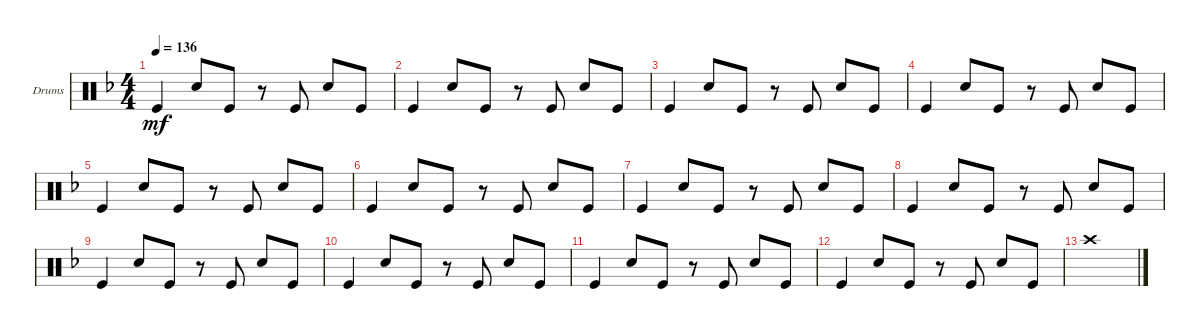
\bracketExtendMode groupsimilarinstruments
\firstSystemTrackNameOrientation horizontal
\otherSystemsTrackNameOrientation horizontal
\track ("Drumkit" "Drums") {instrument percussion}
\staff {score}
\articulation defaults
\ts (4 4)
\tempo 136
\clef neutral
\scale
0.333333
\ks f "Kick (hit)".4{dy mf} "Snare (hit) 2".8 "Kick (hit)".8
r.8 "Kick (hit)".8 "Snare (hit) 2".8 "Kick (hit)".8 |
\scale
0.333333 "Kick (hit)".4 "Snare (hit) 2".8 "Kick (hit)".8 r.8 "Kick (hit)".8 "Snare (hit) 2".8 "Kick (hit)".8 |
\scale
0.333333 "Kick (hit)".4 "Snare (hit) 2".8 "Kick (hit)".8 r.8 "Kick (hit)".8 "Snare (hit) 2".8 "Kick (hit)".8 |
\scale
0.333333 "Kick (hit)".4 "Snare (hit) 2".8 "Kick (hit)".8 r.8 "Kick (hit)".8 "Snare (hit) 2".8 "Kick (hit)".8 |
\scale
0.333333 "Kick (hit)".4 "Snare (hit) 2".8 "Kick (hit)".8 r.8 "Kick (hit)".8 "Snare (hit) 2".8 "Kick (hit)".8 |
\scale
0.333333 "Kick (hit)".4 "Snare (hit) 2".8 "Kick (hit)".8 r.8 "Kick (hit)".8 "Snare (hit) 2".8 "Kick (hit)".8 |
\scale
0.333333 "Kick (hit)".4 "Snare (hit) 2".8 "Kick (hit)".8 r.8 "Kick (hit)".8 "Snare (hit) 2".8 "Kick (hit)".8 |
\scale
0.333333 "Kick (hit)".4 "Snare (hit) 2".8 "Kick (hit)".8 r.8 "Kick (hit)".8 "Snare (hit) 2".8 "Kick (hit)".8 |
\scale
0.333333 "Kick (hit)".4 "Snare (hit) 2".8 "Kick (hit)".8 r.8 "Kick (hit)".8 "Snare (hit) 2".8 "Kick (hit)".8 |
\scale
0.333333 "Kick (hit)".4 "Snare (hit) 2".8 "Kick (hit)".8 r.8 "Kick (hit)".8 "Snare (hit) 2".8 "Kick (hit)".8 |
\scale
0.333333 "Kick (hit)".4 "Snare (hit) 2".8 "Kick (hit)".8 r.8 "Kick (hit)".8 "Snare (hit) 2".8 "Kick (hit)".8 |
\scale
0.333333 "Kick (hit)".4 "Snare (hit) 2".8 "Kick (hit)".8 r.8 "Kick (hit)".8 "Snare (hit) 2".8 "Kick (hit)".8 |
\scale
0.333333 "Crash high (hit)".1 |
\scale
0.333333 |
\scale
0.333333 |
\scale
0.333333
